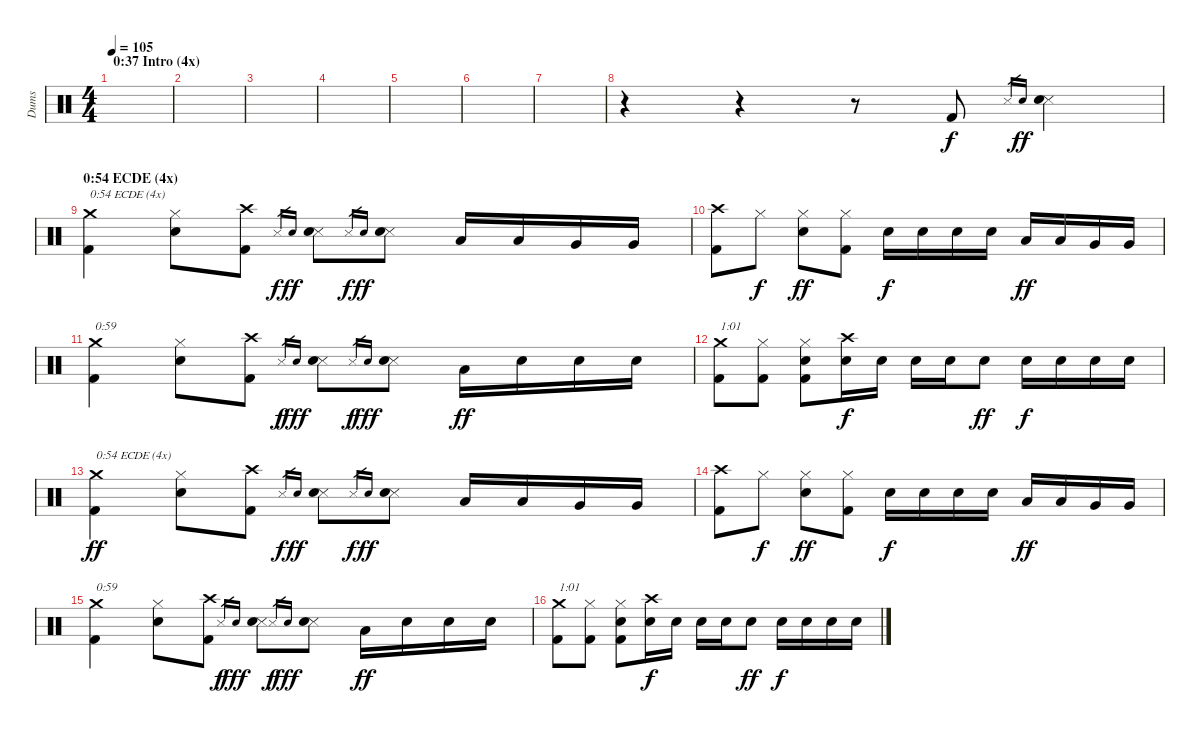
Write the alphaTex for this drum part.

\track ("Dums" "Dums") {instrument percussion}
\staff {score}
\articulation defaults
\ts (4 4)
\section ("" "0:37 Intro (4x)")
\tempo 105
\clef neutral
\ks c
|
|
|
|
|
|
|
r.4 r.4 r.8 "Kick (hit) 2".8 "Snare (side stick) 3".16{gr dy f} "Electric Snare (hit)".16{gr dy ff} ("Snare (side stick) 3" "Electric Snare (hit)").4 |
\section ("" "0:54 ECDE (4x)")
("Kick (hit) 2" "Crash medium (hit)").4{txt "0:54 ECDE (4x)"} ("Electric Snare (hit)" "Hi-Hat (closed)").8 ("Kick (hit) 2" "Crash high (hit)").8 "Snare (side stick) 3".16{gr dy f} "Electric Snare (hit)".16{gr dy ff} ("Snare (side stick) 3" "Electric Snare (hit)").8 "Snare (side stick) 3".16{gr dy f} "Electric Snare (hit)".16{gr dy ff} ("Snare (side stick) 3" "Electric Snare (hit)").8 "Low Tom (hit)".16 "Low Tom (hit)".16 "Very Low Tom (hit)".16 "Very Low Tom (hit)".16 |
("Kick (hit) 2" "Crash high (hit)").8 "Hi-Hat (closed)".8{dy f} ("Electric Snare (hit)" "Hi-Hat (closed)").8{dy ff} ("Kick (hit) 2" "Hi-Hat (closed)").8 "Electric Snare (hit)".16{dy f} "Electric Snare (hit)".16 "Electric Snare (hit)".16 "Electric Snare (hit)".16 "Low Tom (hit)".16{dy ff} "Low Tom (hit)".16 "Very Low Tom (hit)".16 "Very Low Tom (hit)".16 |
("Kick (hit) 2" "Crash medium (hit)").4{txt "0:59"} ("Electric Snare (hit)" "Hi-Hat (closed)").8 ("Kick (hit) 2" "Crash high (hit)").8 "Snare (side stick) 3".16{gr dy f} "Electric Snare (hit)".16{gr dy fff} ("Snare (side stick) 3" "Electric Snare (hit)").8 "Snare (side stick) 3".16{gr dy f} "Electric Snare (hit)".16{gr dy fff} ("Snare (side stick) 3" "Electric Snare (hit)").8 "Low Tom (hit)".16{dy ff} "Electric Snare (hit)".16 "Electric Snare (hit)".16 "Electric Snare (hit)".16 |
("Kick (hit) 2" "Crash medium (hit)").8{txt "1:01"} ("Kick (hit) 2" "Hi-Hat (closed)").8 ("Kick (hit) 2" "Electric Snare (hit)" "Hi-Hat (closed)").8 ("Electric Snare (hit)" "Crash high (hit)").16{dy f} "Electric Snare (hit)".16 "Electric Snare (hit)".16 "Electric Snare (hit)".16 "Electric Snare (hit)".8{dy ff} "Electric Snare (hit)".16{dy f} "Electric Snare (hit)".16 "Electric Snare (hit)".16 "Electric Snare (hit)".16 |
("Kick (hit) 2" "Crash medium (hit)").4{txt "0:54 ECDE (4x)" dy ff} ("Electric Snare (hit)" "Hi-Hat (closed)").8 ("Kick (hit) 2" "Crash high (hit)").8 "Snare (side stick) 3".16{gr dy f} "Electric Snare (hit)".16{gr dy ff} ("Snare (side stick) 3" "Electric Snare (hit)").8 "Snare (side stick) 3".16{gr dy f} "Electric Snare (hit)".16{gr dy ff} ("Snare (side stick) 3" "Electric Snare (hit)").8 "Low Tom (hit)".16 "Low Tom (hit)".16 "Very Low Tom (hit)".16 "Very Low Tom (hit)".16 |
("Kick (hit) 2" "Crash high (hit)").8 "Hi-Hat (closed)".8{dy f} ("Electric Snare (hit)" "Hi-Hat (closed)").8{dy ff} ("Kick (hit) 2" "Hi-Hat (closed)").8 "Electric Snare (hit)".16{dy f} "Electric Snare (hit)".16 "Electric Snare (hit)".16 "Electric Snare (hit)".16 "Low Tom (hit)".16{dy ff} "Low Tom (hit)".16 "Very Low Tom (hit)".16 "Very Low Tom (hit)".16 |
("Kick (hit) 2" "Crash medium (hit)").4{txt "0:59"} ("Electric Snare (hit)" "Hi-Hat (closed)").8 ("Kick (hit) 2" "Crash high (hit)").8 "Snare (side stick) 3".16{gr dy f} "Electric Snare (hit)".16{gr dy fff} ("Snare (side stick) 3" "Electric Snare (hit)").8 "Snare (side stick) 3".16{gr dy f} "Electric Snare (hit)".16{gr dy fff} ("Snare (side stick) 3" "Electric Snare (hit)").8 "Low Tom (hit)".16{dy ff} "Electric Snare (hit)".16 "Electric Snare (hit)".16 "Electric Snare (hit)".16 |
("Kick (hit) 2" "Crash medium (hit)").8{txt "1:01"} ("Kick (hit) 2" "Hi-Hat (closed)").8 ("Kick (hit) 2" "Electric Snare (hit)" "Hi-Hat (closed)").8 ("Electric Snare (hit)" "Crash high (hit)").16{dy f} "Electric Snare (hit)".16 "Electric Snare (hit)".16 "Electric Snare (hit)".16 "Electric Snare (hit)".8{dy ff} "Electric Snare (hit)".16{dy f} "Electric Snare (hit)".16 "Electric Snare (hit)".16 "Electric Snare (hit)".16
